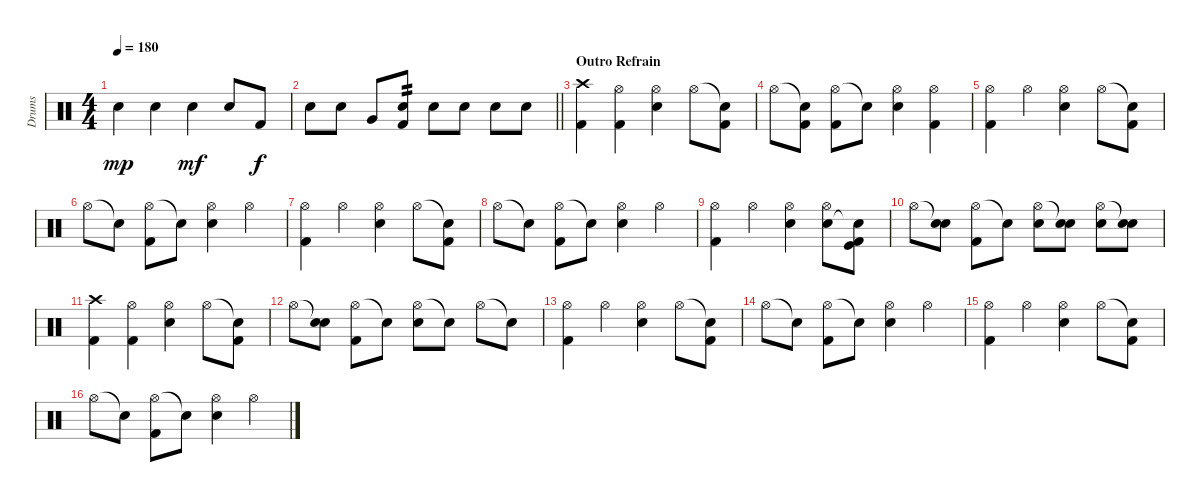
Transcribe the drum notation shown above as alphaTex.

\track ("Drums" "Drums") {instrument percussion}
\staff {score}
\articulation defaults
\ts (4 4)
\tempo 180
\clef neutral
\ks c "Snare (hit) 2".4{dy mp} "Snare (hit) 2".4 "Snare (hit) 2".4{dy mf} "Snare (hit) 2".8 "Kick (hit) 2".8{dy f}
|
\barLineRight lightlight "Snare (hit) 2".8 "Snare (hit) 2".8 "Very Low Tom (hit)".8
("Snare (hit) 2" "Kick (hit) 2").8{tp 2} "Snare (hit) 2".8 "Snare (hit) 2".8 "Snare (hit) 2".8 "Snare (hit) 2".8 |
\section ("" "Outro Refrain")
("Crash high (hit)" "Kick (hit) 2").4 ("Hi-Hat (open)" "Kick (hit) 2").4 ("Hi-Hat (open)" "Snare (hit) 2").4 "Hi-Hat (open)".8 ("Snare (hit)"{t} "Kick (hit) 2").8 |
"Hi-Hat (open)".8 ("Snare (hit)"{t} "Kick (hit) 2").8 ("Hi-Hat (open)" "Kick (hit) 2").8 "Snare (hit)"{t}.8 ("Hi-Hat (open)" "Snare (hit) 2").4 ("Hi-Hat (open)" "Kick (hit) 2").4 |
("Hi-Hat (open)" "Kick (hit) 2").4 "Hi-Hat (open)".4 ("Hi-Hat (open)" "Snare (hit) 2").4 "Hi-Hat (open)".8 ("Snare (hit)"{t} "Kick (hit) 2").8 |
"Hi-Hat (open)".8 "Snare (hit)"{t}.8 ("Hi-Hat (open)" "Kick (hit) 2").8 "Snare (hit)"{t}.8 ("Hi-Hat (open)" "Snare (hit) 2").4 "Hi-Hat (open)".4 |
("Hi-Hat (open)" "Kick (hit) 2").4 "Hi-Hat (open)".4 ("Hi-Hat (open)" "Snare (hit) 2").4 "Hi-Hat (open)".8 ("Snare (hit)"{t} "Kick (hit) 2").8 |
"Hi-Hat (open)".8 "Snare (hit)"{t}.8 ("Hi-Hat (open)" "Kick (hit) 2").8 "Snare (hit)"{t}.8 ("Hi-Hat (open)" "Snare (hit) 2").4 "Hi-Hat (open)".4 |
("Hi-Hat (open)" "Kick (hit) 2").4 "Hi-Hat (open)".4 ("Hi-Hat (open)" "Snare (hit) 2").4 ("Hi-Hat (open)" "Snare (hit) 2").8 ("Kick (hit)" "Snare (hit)"{t} "Kick (hit) 2").8 |
"Hi-Hat (open)".8 ("Snare (hit)"{t} "Snare (hit) 2").8 ("Hi-Hat (open)" "Kick (hit) 2").8 "Snare (hit)"{t}.8 ("Hi-Hat (open)" "Snare (hit) 2").8 ("Snare (hit)"{t} "Snare (hit) 2").8 ("Hi-Hat (open)" "Snare (hit) 2").8 ("Snare (hit)"{t} "Snare (hit) 2").8 |
("Crash high (hit)" "Kick (hit) 2").4 ("Hi-Hat (open)" "Kick (hit) 2").4 ("Hi-Hat (open)" "Snare (hit) 2").4 "Hi-Hat (open)".8 ("Snare (hit)"{t} "Kick (hit) 2").8 |
"Hi-Hat (open)".8 ("Snare (hit)"{t} "Snare (hit) 2").8 ("Hi-Hat (open)" "Kick (hit) 2").8 "Snare (hit)"{t}.8 ("Hi-Hat (open)" "Snare (hit) 2").8 "Snare (hit)"{t}.8 "Hi-Hat (open)".8 "Snare (hit)"{t}.8 |
("Hi-Hat (open)" "Kick (hit) 2").4 "Hi-Hat (open)".4 ("Hi-Hat (open)" "Snare (hit) 2").4 "Hi-Hat (open)".8 ("Snare (hit)"{t} "Kick (hit) 2").8 |
"Hi-Hat (open)".8 "Snare (hit)"{t}.8 ("Hi-Hat (open)" "Kick (hit) 2").8 "Snare (hit)"{t}.8 ("Hi-Hat (open)" "Snare (hit) 2").4 "Hi-Hat (open)".4 |
("Hi-Hat (open)" "Kick (hit) 2").4 "Hi-Hat (open)".4 ("Hi-Hat (open)" "Snare (hit) 2").4 "Hi-Hat (open)".8 ("Snare (hit)"{t} "Kick (hit) 2").8 |
"Hi-Hat (open)".8 "Snare (hit)"{t}.8 ("Hi-Hat (open)" "Kick (hit) 2").8 "Snare (hit)"{t}.8 ("Hi-Hat (open)" "Snare (hit) 2").4 "Hi-Hat (open)".4
